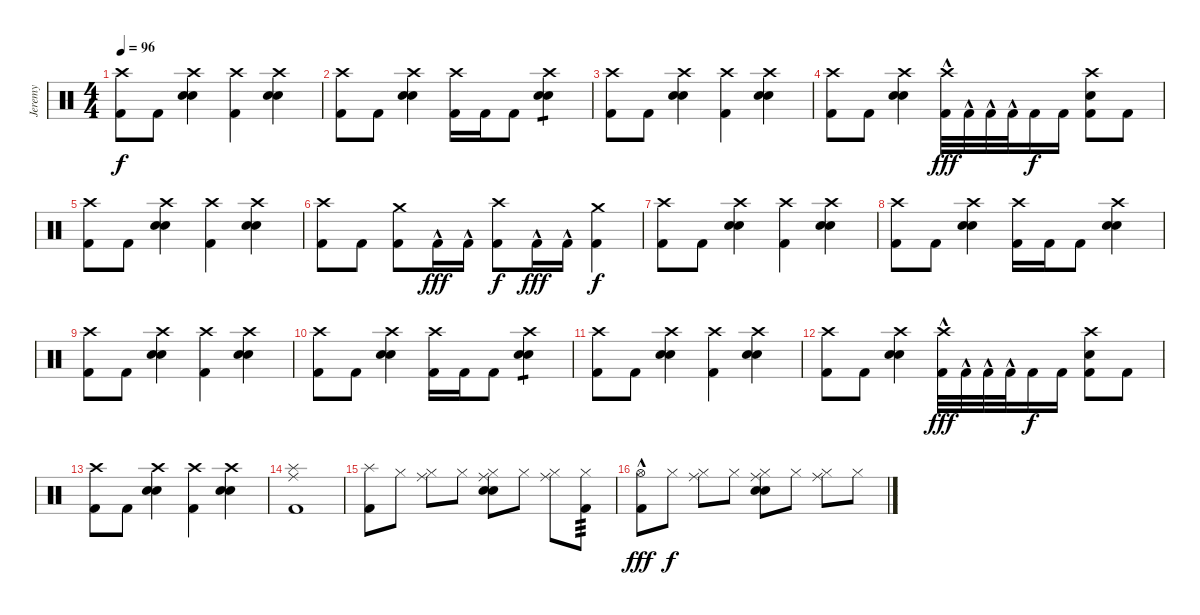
\track ("Jeremy" "Jeremy") {instrument percussion}
\staff {score}
\articulation defaults
\ts (4 4)
\tempo 96
\clef neutral
\ks c
("Crash high (hit)" "Kick (hit) 2").8{dy f} "Kick (hit) 2".8 ("Crash high (hit)" "Electric Snare (hit)" "Snare (hit) 2").4 ("Crash high (hit)" "Kick (hit) 2").4 ("Crash high (hit)" "Electric Snare (hit)" "Snare (hit) 2").4 |
("Crash high (hit)" "Kick (hit) 2").8 "Kick (hit) 2".8 ("Crash high (hit)" "Electric Snare (hit)" "Snare (hit) 2").4 ("Kick (hit) 2" "Crash high (hit)").16 "Kick (hit) 2".16 "Kick (hit) 2".8 ("Crash high (hit)" "Electric Snare (hit)" "Snare (hit) 2").4{tp 1} |
("Crash high (hit)" "Kick (hit) 2").8 "Kick (hit) 2".8 ("Crash high (hit)" "Electric Snare (hit)" "Snare (hit) 2").4 ("Crash high (hit)" "Kick (hit) 2").4 ("Crash high (hit)" "Electric Snare (hit)" "Snare (hit) 2").4 |
("Crash high (hit)" "Kick (hit) 2").8 "Kick (hit) 2".8 ("Crash high (hit)" "Electric Snare (hit)" "Snare (hit) 2").4 ("Kick (hit) 2"{hac} "Crash high (hit)").32{dy fff} "Kick (hit) 2"{hac}.32 "Kick (hit) 2"{hac}.32 "Kick (hit) 2"{hac}.32 "Kick (hit) 2".16{dy f} "Kick (hit) 2".16 ("Crash high (hit)" "Electric Snare (hit)" "Kick (hit) 2").8 "Kick (hit) 2".8 |
("Crash high (hit)" "Kick (hit) 2").8 "Kick (hit) 2".8 ("Crash high (hit)" "Electric Snare (hit)" "Snare (hit) 2").4 ("Crash high (hit)" "Kick (hit) 2").4 ("Crash high (hit)" "Electric Snare (hit)" "Snare (hit) 2").4 |
("Crash high (hit)" "Kick (hit) 2").8 "Kick (hit) 2".8 ("Crash medium (hit)" "Kick (hit) 2").8 "Kick (hit) 2"{hac}.16{dy fff} "Kick (hit) 2"{hac}.16 ("Crash high (hit)" "Kick (hit) 2").8{dy f} "Kick (hit) 2"{hac}.16{dy fff} "Kick (hit) 2"{hac}.16 ("Crash medium (hit)" "Kick (hit) 2").4{dy f} |
("Crash high (hit)" "Kick (hit) 2").8 "Kick (hit) 2".8 ("Crash high (hit)" "Electric Snare (hit)" "Snare (hit) 2").4 ("Crash high (hit)" "Kick (hit) 2").4 ("Crash high (hit)" "Electric Snare (hit)" "Snare (hit) 2").4 |
("Crash high (hit)" "Kick (hit) 2").8 "Kick (hit) 2".8 ("Crash high (hit)" "Electric Snare (hit)" "Snare (hit) 2").4 ("Kick (hit) 2" "Crash high (hit)").16 "Kick (hit) 2".16 "Kick (hit) 2".8 ("Crash high (hit)" "Electric Snare (hit)" "Snare (hit) 2").4 |
("Crash high (hit)" "Kick (hit) 2").8 "Kick (hit) 2".8 ("Crash high (hit)" "Electric Snare (hit)" "Snare (hit) 2").4 ("Crash high (hit)" "Kick (hit) 2").4 ("Crash high (hit)" "Electric Snare (hit)" "Snare (hit) 2").4 |
("Crash high (hit)" "Kick (hit) 2").8 "Kick (hit) 2".8 ("Crash high (hit)" "Electric Snare (hit)" "Snare (hit) 2").4 ("Kick (hit) 2" "Crash high (hit)").16 "Kick (hit) 2".16 "Kick (hit) 2".8 ("Crash high (hit)" "Electric Snare (hit)" "Snare (hit) 2").4{tp 1} |
("Crash high (hit)" "Kick (hit) 2").8 "Kick (hit) 2".8 ("Crash high (hit)" "Electric Snare (hit)" "Snare (hit) 2").4 ("Crash high (hit)" "Kick (hit) 2").4 ("Crash high (hit)" "Electric Snare (hit)" "Snare (hit) 2").4 |
("Crash high (hit)" "Kick (hit) 2").8 "Kick (hit) 2".8 ("Crash high (hit)" "Electric Snare (hit)" "Snare (hit) 2").4 ("Kick (hit) 2"{hac} "Crash high (hit)").32{dy fff} "Kick (hit) 2"{hac}.32 "Kick (hit) 2"{hac}.32 "Kick (hit) 2"{hac}.32 "Kick (hit) 2".16{dy f} "Kick (hit) 2".16 ("Crash high (hit)" "Electric Snare (hit)" "Kick (hit) 2").8 "Kick (hit) 2".8 |
("Crash high (hit)" "Kick (hit) 2").8 "Kick (hit) 2".8 ("Crash high (hit)" "Electric Snare (hit)" "Snare (hit) 2").4 ("Crash high (hit)" "Kick (hit) 2").4 ("Crash high (hit)" "Electric Snare (hit)" "Snare (hit) 2").4 |
("Splash (hit)" "Ride (middle)" "Kick (hit) 2").1 |
("Splash (hit)" "Kick (hit) 2").8 "Hi-Hat (closed)".8 ("Hi-Hat (closed)" "Ride (middle)").8 "Hi-Hat (closed)".8 ("Hi-Hat (closed)" "Ride (middle)" "Electric Snare (hit)" "Snare (hit) 2").8 "Hi-Hat (closed)".8 ("Hi-Hat (closed)" "Ride (middle)").8 ("Hi-Hat (closed)" "Kick (hit) 2").8{tp 3} |
("Hi-Hat (open)" "Kick (hit) 2"{hac}).8{dy fff} "Hi-Hat (closed)".8{dy f} ("Hi-Hat (closed)" "Ride (middle)").8 "Hi-Hat (closed)".8 ("Hi-Hat (closed)" "Ride (middle)" "Electric Snare (hit)" "Snare (hit) 2").8 "Hi-Hat (closed)".8 ("Hi-Hat (closed)" "Ride (middle)").8 "Hi-Hat (closed)".8
